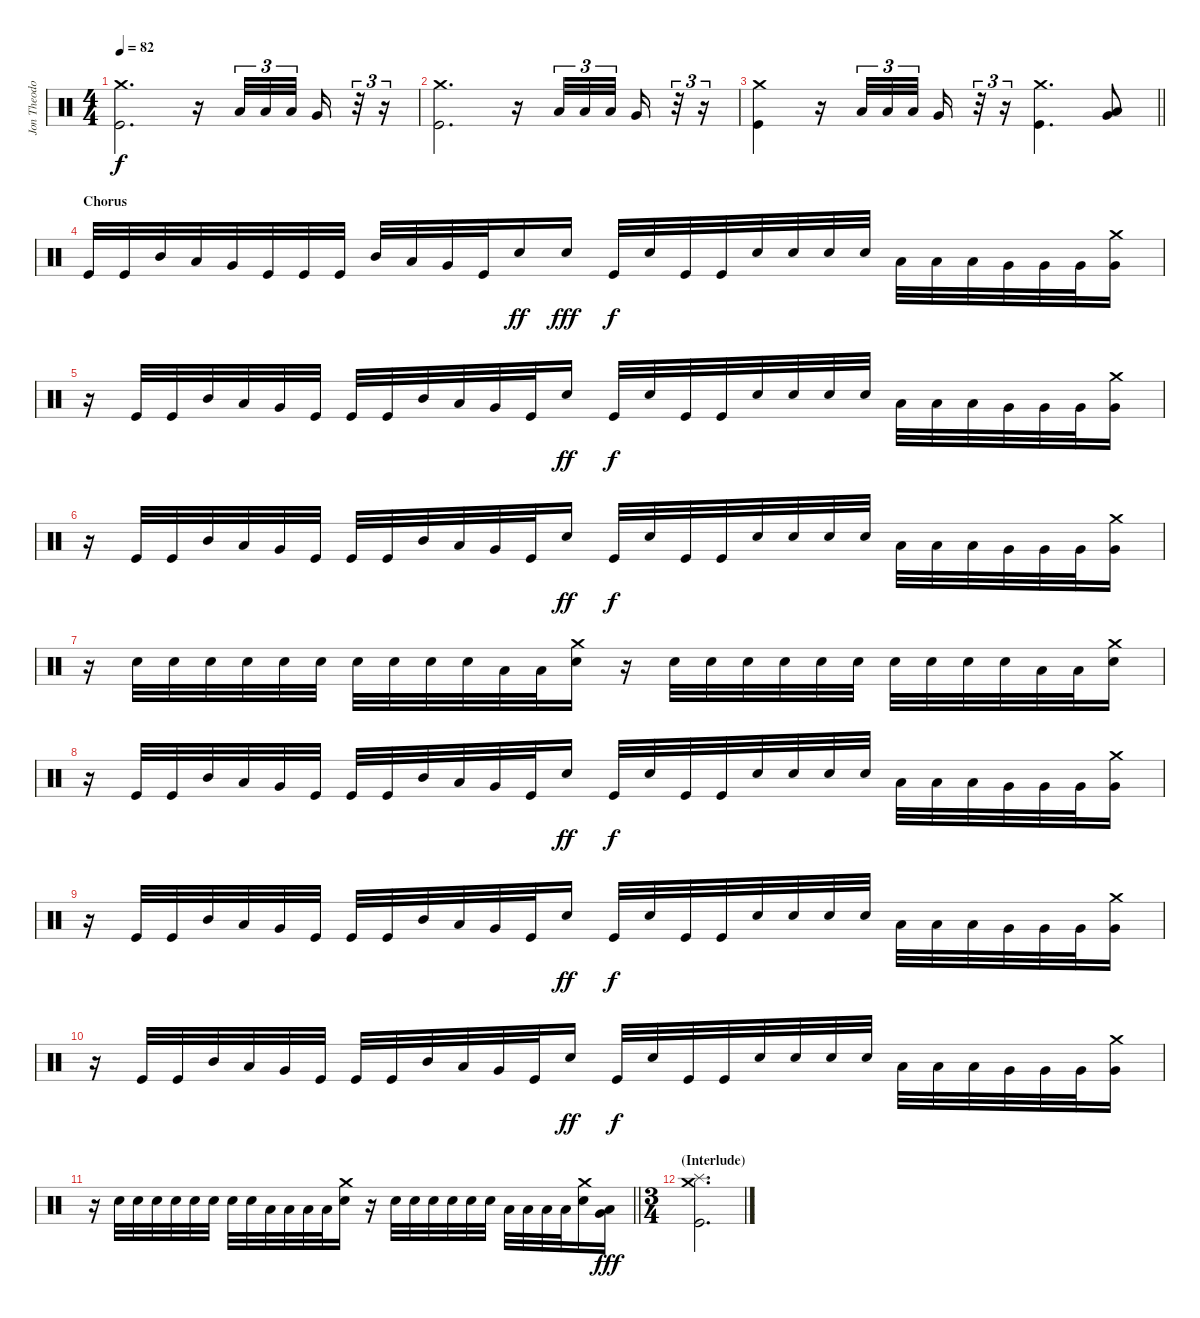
\track ("Jon Theodore - Drums" "Jon Theodo") {instrument percussion}
\staff {score}
\articulation defaults
\ts (4 4)
\tempo 82
\clef neutral
\ks c
("Crash medium (hit)" "Kick (hit)").2{d dy f} r.16 "Low Tom (hit)".32{tu (3 2)} "Low Tom (hit)".32{tu (3 2)} "Low Tom (hit)".32{tu (3 2) beam splitsecondary} "Very Low Tom (hit)".16 r.32{tu (3 2)} r.16{tu (3 2)} |
("Crash medium (hit)" "Kick (hit)").2{d} r.16 "Low Tom (hit)".32{tu (3 2)} "Low Tom (hit)".32{tu (3 2)} "Low Tom (hit)".32{tu (3 2) beam splitsecondary} "Very Low Tom (hit)".16 r.32{tu (3 2)} r.16{tu (3 2)} |
\barLineRight lightlight
("Crash medium (hit)" "Kick (hit)").4 r.16 "Low Tom (hit)".32{tu (3 2)} "Low Tom (hit)".32{tu (3 2)} "Low Tom (hit)".32{tu (3 2) beam splitsecondary} "Very Low Tom (hit)".16 r.32{tu (3 2)} r.16{tu (3 2)} ("Crash medium (hit)" "Kick (hit)").4{d} ("Low Tom (hit)" "Very Low Tom (hit)").8{bd 60} |
\section ("" "Chorus")
"Kick (hit)".32 "Kick (hit)".32 "Mid Tom (hit)".32 "Low Tom (hit)".32 "Very Low Tom (hit)".32 "Kick (hit)".32 "Kick (hit)".32 "Kick (hit)".32 "Mid Tom (hit)".32 "Low Tom (hit)".32 "Very Low Tom (hit)".32 "Kick (hit)".32 "Snare (hit) 2".16{dy ff} "Snare (hit) 2".16{dy fff} "Kick (hit)".32{dy f} "Snare (hit) 2".32 "Kick (hit)".32 "Kick (hit)".32 "Snare (hit) 2".32 "Snare (hit) 2".32 "Snare (hit) 2".32 "Snare (hit) 2".32 "Low Tom (hit)".32 "Low Tom (hit)".32 "Low Tom (hit)".32 "Very Low Tom (hit)".32 "Very Low Tom (hit)".32 "Very Low Tom (hit)".32 ("Crash medium (hit)" "Very Low Tom (hit)").16 |
r.16 "Kick (hit)".32 "Kick (hit)".32 "Mid Tom (hit)".32 "Low Tom (hit)".32 "Very Low Tom (hit)".32 "Kick (hit)".32 "Kick (hit)".32 "Kick (hit)".32 "Mid Tom (hit)".32 "Low Tom (hit)".32 "Very Low Tom (hit)".32 "Kick (hit)".32 "Snare (hit) 2".16{dy ff} "Kick (hit)".32{dy f} "Snare (hit) 2".32 "Kick (hit)".32 "Kick (hit)".32 "Snare (hit) 2".32 "Snare (hit) 2".32 "Snare (hit) 2".32 "Snare (hit) 2".32 "Low Tom (hit)".32 "Low Tom (hit)".32 "Low Tom (hit)".32 "Very Low Tom (hit)".32 "Very Low Tom (hit)".32 "Very Low Tom (hit)".32 ("Crash medium (hit)" "Very Low Tom (hit)").16 |
r.16 "Kick (hit)".32 "Kick (hit)".32 "Mid Tom (hit)".32 "Low Tom (hit)".32 "Very Low Tom (hit)".32 "Kick (hit)".32 "Kick (hit)".32 "Kick (hit)".32 "Mid Tom (hit)".32 "Low Tom (hit)".32 "Very Low Tom (hit)".32 "Kick (hit)".32 "Snare (hit) 2".16{dy ff} "Kick (hit)".32{dy f} "Snare (hit) 2".32 "Kick (hit)".32 "Kick (hit)".32 "Snare (hit) 2".32 "Snare (hit) 2".32 "Snare (hit) 2".32 "Snare (hit) 2".32 "Low Tom (hit)".32 "Low Tom (hit)".32 "Low Tom (hit)".32 "Very Low Tom (hit)".32 "Very Low Tom (hit)".32 "Very Low Tom (hit)".32 ("Crash medium (hit)" "Very Low Tom (hit)").16 |
r.16 "Snare (hit) 2".32 "Snare (hit) 2".32 "Snare (hit) 2".32 "Snare (hit) 2".32 "Snare (hit) 2".32 "Snare (hit) 2".32 "Snare (hit) 2".32 "Snare (hit) 2".32 "Snare (hit) 2".32 "Snare (hit) 2".32 "Low Tom (hit)".32 "Low Tom (hit)".32 ("Crash medium (hit)" "Snare (hit) 2").16 r.16 "Snare (hit) 2".32 "Snare (hit) 2".32 "Snare (hit) 2".32 "Snare (hit) 2".32 "Snare (hit) 2".32 "Snare (hit) 2".32 "Snare (hit) 2".32 "Snare (hit) 2".32 "Snare (hit) 2".32 "Snare (hit) 2".32 "Low Tom (hit)".32 "Low Tom (hit)".32 ("Crash medium (hit)" "Snare (hit) 2").16 |
r.16 "Kick (hit)".32 "Kick (hit)".32 "Mid Tom (hit)".32 "Low Tom (hit)".32 "Very Low Tom (hit)".32 "Kick (hit)".32 "Kick (hit)".32 "Kick (hit)".32 "Mid Tom (hit)".32 "Low Tom (hit)".32 "Very Low Tom (hit)".32 "Kick (hit)".32 "Snare (hit) 2".16{dy ff} "Kick (hit)".32{dy f} "Snare (hit) 2".32 "Kick (hit)".32 "Kick (hit)".32 "Snare (hit) 2".32 "Snare (hit) 2".32 "Snare (hit) 2".32 "Snare (hit) 2".32 "Low Tom (hit)".32 "Low Tom (hit)".32 "Low Tom (hit)".32 "Very Low Tom (hit)".32 "Very Low Tom (hit)".32 "Very Low Tom (hit)".32 ("Crash medium (hit)" "Very Low Tom (hit)").16 |
r.16 "Kick (hit)".32 "Kick (hit)".32 "Mid Tom (hit)".32 "Low Tom (hit)".32 "Very Low Tom (hit)".32 "Kick (hit)".32 "Kick (hit)".32 "Kick (hit)".32 "Mid Tom (hit)".32 "Low Tom (hit)".32 "Very Low Tom (hit)".32 "Kick (hit)".32 "Snare (hit) 2".16{dy ff} "Kick (hit)".32{dy f} "Snare (hit) 2".32 "Kick (hit)".32 "Kick (hit)".32 "Snare (hit) 2".32 "Snare (hit) 2".32 "Snare (hit) 2".32 "Snare (hit) 2".32 "Low Tom (hit)".32 "Low Tom (hit)".32 "Low Tom (hit)".32 "Very Low Tom (hit)".32 "Very Low Tom (hit)".32 "Very Low Tom (hit)".32 ("Crash medium (hit)" "Very Low Tom (hit)").16 |
r.16 "Kick (hit)".32 "Kick (hit)".32 "Mid Tom (hit)".32 "Low Tom (hit)".32 "Very Low Tom (hit)".32 "Kick (hit)".32 "Kick (hit)".32 "Kick (hit)".32 "Mid Tom (hit)".32 "Low Tom (hit)".32 "Very Low Tom (hit)".32 "Kick (hit)".32 "Snare (hit) 2".16{dy ff} "Kick (hit)".32{dy f} "Snare (hit) 2".32 "Kick (hit)".32 "Kick (hit)".32 "Snare (hit) 2".32 "Snare (hit) 2".32 "Snare (hit) 2".32 "Snare (hit) 2".32 "Low Tom (hit)".32 "Low Tom (hit)".32 "Low Tom (hit)".32 "Very Low Tom (hit)".32 "Very Low Tom (hit)".32 "Very Low Tom (hit)".32 ("Crash medium (hit)" "Very Low Tom (hit)").16 |
\barLineRight lightlight
r.16 "Snare (hit) 2".32 "Snare (hit) 2".32 "Snare (hit) 2".32 "Snare (hit) 2".32 "Snare (hit) 2".32 "Snare (hit) 2".32 "Snare (hit) 2".32 "Snare (hit) 2".32 "Low Tom (hit)".32 "Low Tom (hit)".32 "Low Tom (hit)".32 "Low Tom (hit)".32 ("Crash medium (hit)" "Snare (hit) 2").16 r.16 "Snare (hit) 2".32 "Snare (hit) 2".32 "Snare (hit) 2".32 "Snare (hit) 2".32 "Snare (hit) 2".32 "Snare (hit) 2".32 "Low Tom (hit)".32 "Low Tom (hit)".32 "Low Tom (hit)".32 "Low Tom (hit)".32 ("Crash medium (hit)" "Snare (hit) 2").16 ("Low Tom (hit)" "Very Low Tom (hit)").16{dy fff} |
\ts (3 4)
\section ("" "(Interlude)")
("Crash medium (hit)" "Splash (hit)" "Kick (hit)").2{d}
